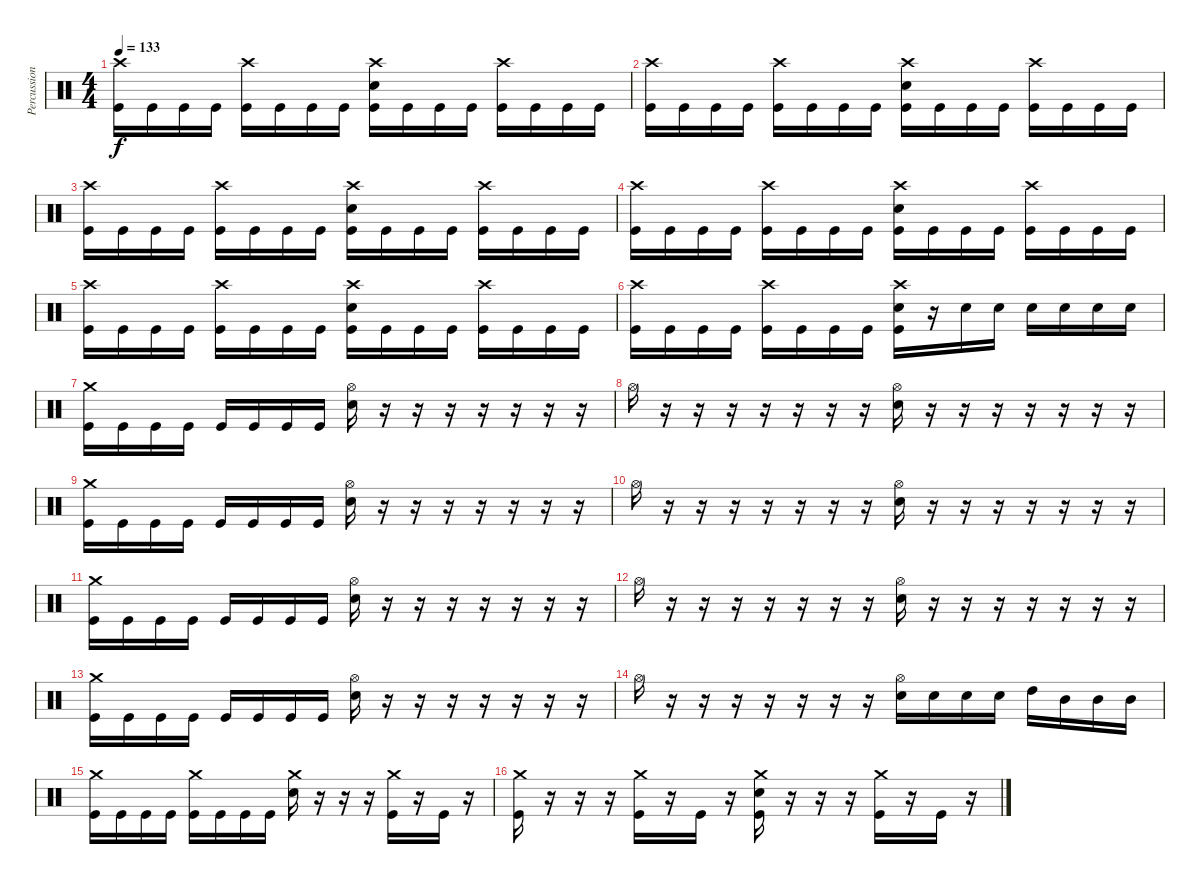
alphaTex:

\track ("Percussion" "Percussion") {instrument percussion}
\staff {score}
\articulation defaults
\ts (4 4)
\tempo 133
\clef neutral
\ks c
("Crash high (hit)" "Kick (hit)").16{dy f} "Kick (hit)".16 "Kick (hit)".16 "Kick (hit)".16 ("Crash high (hit)" "Kick (hit)").16 "Kick (hit)".16 "Kick (hit)".16 "Kick (hit)".16 ("Crash high (hit)" "Electric Snare (hit)" "Kick (hit)").16 "Kick (hit)".16 "Kick (hit)".16 "Kick (hit)".16 ("Crash high (hit)" "Kick (hit)").16 "Kick (hit)".16 "Kick (hit)".16 "Kick (hit)".16 |
("Crash high (hit)" "Kick (hit)").16 "Kick (hit)".16 "Kick (hit)".16 "Kick (hit)".16 ("Crash high (hit)" "Kick (hit)").16 "Kick (hit)".16 "Kick (hit)".16 "Kick (hit)".16 ("Crash high (hit)" "Electric Snare (hit)" "Kick (hit)").16 "Kick (hit)".16 "Kick (hit)".16 "Kick (hit)".16 ("Crash high (hit)" "Kick (hit)").16 "Kick (hit)".16 "Kick (hit)".16 "Kick (hit)".16 |
("Crash high (hit)" "Kick (hit)").16 "Kick (hit)".16 "Kick (hit)".16 "Kick (hit)".16 ("Crash high (hit)" "Kick (hit)").16 "Kick (hit)".16 "Kick (hit)".16 "Kick (hit)".16 ("Crash high (hit)" "Electric Snare (hit)" "Kick (hit)").16 "Kick (hit)".16 "Kick (hit)".16 "Kick (hit)".16 ("Crash high (hit)" "Kick (hit)").16 "Kick (hit)".16 "Kick (hit)".16 "Kick (hit)".16 |
("Crash high (hit)" "Kick (hit)").16 "Kick (hit)".16 "Kick (hit)".16 "Kick (hit)".16 ("Crash high (hit)" "Kick (hit)").16 "Kick (hit)".16 "Kick (hit)".16 "Kick (hit)".16 ("Crash high (hit)" "Electric Snare (hit)" "Kick (hit)").16 "Kick (hit)".16 "Kick (hit)".16 "Kick (hit)".16 ("Crash high (hit)" "Kick (hit)").16 "Kick (hit)".16 "Kick (hit)".16 "Kick (hit)".16 |
("Crash high (hit)" "Kick (hit)").16 "Kick (hit)".16 "Kick (hit)".16 "Kick (hit)".16 ("Crash high (hit)" "Kick (hit)").16 "Kick (hit)".16 "Kick (hit)".16 "Kick (hit)".16 ("Crash high (hit)" "Electric Snare (hit)" "Kick (hit)").16 "Kick (hit)".16 "Kick (hit)".16 "Kick (hit)".16 ("Crash high (hit)" "Kick (hit)").16 "Kick (hit)".16 "Kick (hit)".16 "Kick (hit)".16 |
("Crash high (hit)" "Kick (hit)").16 "Kick (hit)".16 "Kick (hit)".16 "Kick (hit)".16 ("Crash high (hit)" "Kick (hit)").16 "Kick (hit)".16 "Kick (hit)".16 "Kick (hit)".16 ("Crash high (hit)" "Electric Snare (hit)" "Kick (hit)").16 r.16 "Electric Snare (hit)".16 "Electric Snare (hit)".16 "Electric Snare (hit)".16 "Electric Snare (hit)".16 "Electric Snare (hit)".16 "Electric Snare (hit)".16 |
("Crash medium (hit)" "Kick (hit)").16 "Kick (hit)".16 "Kick (hit)".16 "Kick (hit)".16 "Kick (hit)".16 "Kick (hit)".16 "Kick (hit)".16 "Kick (hit)".16 ("Hi-Hat (open)" "Electric Snare (hit)").16 r.16 r.16 r.16 r.16 r.16 r.16 r.16 |
"Hi-Hat (open)".16 r.16 r.16 r.16 r.16 r.16 r.16 r.16 ("Hi-Hat (open)" "Electric Snare (hit)").16 r.16 r.16 r.16 r.16 r.16 r.16 r.16 |
("Crash medium (hit)" "Kick (hit)").16 "Kick (hit)".16 "Kick (hit)".16 "Kick (hit)".16 "Kick (hit)".16 "Kick (hit)".16 "Kick (hit)".16 "Kick (hit)".16 ("Hi-Hat (open)" "Electric Snare (hit)").16 r.16 r.16 r.16 r.16 r.16 r.16 r.16 |
"Hi-Hat (open)".16 r.16 r.16 r.16 r.16 r.16 r.16 r.16 ("Hi-Hat (open)" "Electric Snare (hit)").16 r.16 r.16 r.16 r.16 r.16 r.16 r.16 |
("Crash medium (hit)" "Kick (hit)").16 "Kick (hit)".16 "Kick (hit)".16 "Kick (hit)".16 "Kick (hit)".16 "Kick (hit)".16 "Kick (hit)".16 "Kick (hit)".16 ("Hi-Hat (open)" "Electric Snare (hit)").16 r.16 r.16 r.16 r.16 r.16 r.16 r.16 |
"Hi-Hat (open)".16 r.16 r.16 r.16 r.16 r.16 r.16 r.16 ("Hi-Hat (open)" "Electric Snare (hit)").16 r.16 r.16 r.16 r.16 r.16 r.16 r.16 |
("Crash medium (hit)" "Kick (hit)").16 "Kick (hit)".16 "Kick (hit)".16 "Kick (hit)".16 "Kick (hit)".16 "Kick (hit)".16 "Kick (hit)".16 "Kick (hit)".16 ("Hi-Hat (open)" "Electric Snare (hit)").16 r.16 r.16 r.16 r.16 r.16 r.16 r.16 |
"Hi-Hat (open)".16 r.16 r.16 r.16 r.16 r.16 r.16 r.16 ("Hi-Hat (open)" "Electric Snare (hit)").16 "Electric Snare (hit)".16 "Electric Snare (hit)".16 "Electric Snare (hit)".16 "High Tom (hit)".16 "Mid Tom (hit)".16 "Mid Tom (hit)".16 "Mid Tom (hit)".16 |
("Crash medium (hit)" "Kick (hit)").16 "Kick (hit)".16 "Kick (hit)".16 "Kick (hit)".16 ("Crash medium (hit)" "Kick (hit)").16 "Kick (hit)".16 "Kick (hit)".16 "Kick (hit)".16 ("Crash medium (hit)" "Electric Snare (hit)").16 r.16 r.16 r.16 ("Crash medium (hit)" "Kick (hit)").16 r.16 "Kick (hit)".16 r.16 |
("Crash medium (hit)" "Kick (hit)").16 r.16 r.16 r.16 ("Crash medium (hit)" "Kick (hit)").16 r.16 "Kick (hit)".16 r.16 ("Crash medium (hit)" "Electric Snare (hit)" "Kick (hit)").16 r.16 r.16 r.16 ("Crash medium (hit)" "Kick (hit)").16 r.16 "Kick (hit)".16 r.16
